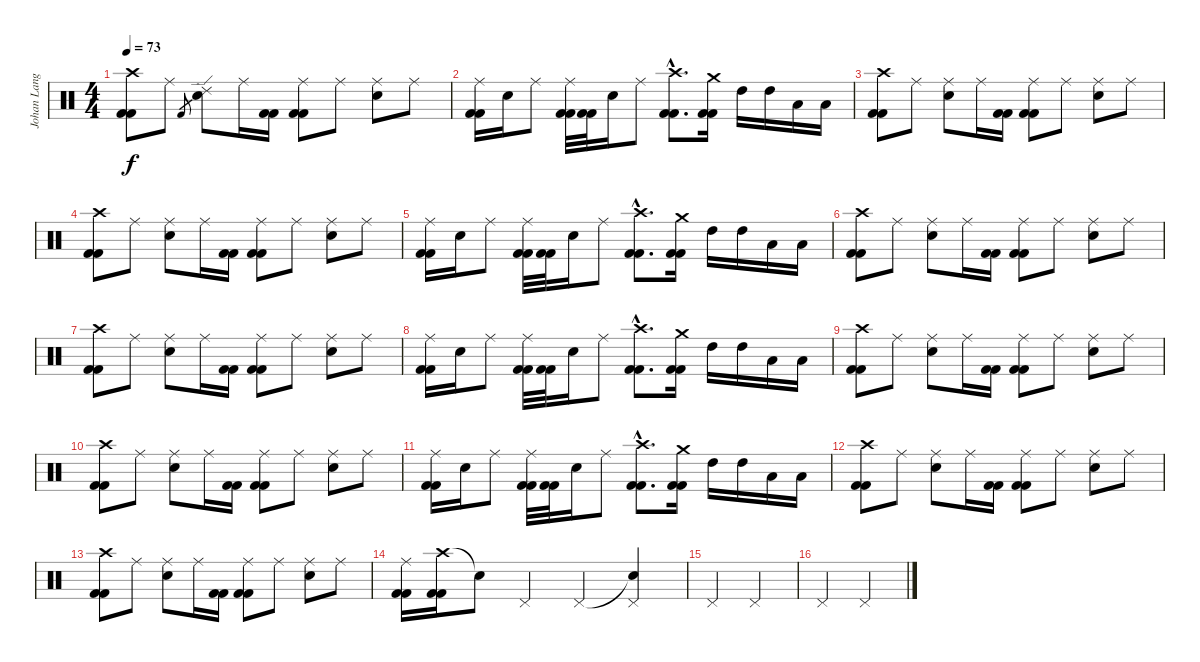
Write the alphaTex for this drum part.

\track ("Johan Langell" "Johan Lang") {instrument percussion}
\staff {score}
\articulation defaults
\ts (4 4)
\tempo 73
\clef neutral
\ks c
("Crash high (hit)" "Kick (hit) 2" "Kick (hit) 2").8{dy f} "Ride (middle)".8 "Kick (hit) 2".8{gr} ("Ride (edge) 2" "Snare (hit) 2").8 "Ride (middle)".16 ("Kick (hit) 2" "Kick (hit) 2").16 ("Ride (middle)" "Kick (hit) 2" "Kick (hit) 2").8 "Ride (middle)".8 ("Ride (middle)" "Snare (hit) 2").8 "Ride (middle)".8 |
("Ride (middle)" "Kick (hit) 2" "Kick (hit) 2").16 "Snare (hit) 2".16 "Ride (middle)".8 ("Ride (middle)" "Kick (hit) 2" "Kick (hit) 2").32 ("Kick (hit) 2" "Kick (hit) 2").32 "Snare (hit) 2".16 "Ride (middle)".8 ("Crash high (hit)"{hac} "Kick (hit) 2"{hac} "Kick (hit) 2"{hac}).8{d} ("Crash medium (hit)" "Kick (hit) 2" "Kick (hit) 2").16 "High Tom (hit)".16 "High Tom (hit)".16 "Low Tom (hit)".16 "Low Tom (hit)".16 |
("Crash high (hit)" "Kick (hit) 2" "Kick (hit) 2").8 "Ride (middle)".8 ("Ride (middle)" "Snare (hit) 2").8 "Ride (middle)".16 ("Kick (hit) 2" "Kick (hit) 2").16 ("Ride (middle)" "Kick (hit) 2" "Kick (hit) 2").8 "Ride (middle)".8 ("Ride (middle)" "Snare (hit) 2").8 "Ride (middle)".8 |
("Crash high (hit)" "Kick (hit) 2" "Kick (hit) 2").8 "Ride (middle)".8 ("Ride (middle)" "Snare (hit) 2").8 "Ride (middle)".16 ("Kick (hit) 2" "Kick (hit) 2").16 ("Ride (middle)" "Kick (hit) 2" "Kick (hit) 2").8 "Ride (middle)".8 ("Ride (middle)" "Snare (hit) 2").8 "Ride (middle)".8 |
("Ride (middle)" "Kick (hit) 2" "Kick (hit) 2").16 "Snare (hit) 2".16 "Ride (middle)".8 ("Ride (middle)" "Kick (hit) 2" "Kick (hit) 2").32 ("Kick (hit) 2" "Kick (hit) 2").32 "Snare (hit) 2".16 "Ride (middle)".8 ("Crash high (hit)"{hac} "Kick (hit) 2"{hac} "Kick (hit) 2"{hac}).8{d} ("Crash medium (hit)" "Kick (hit) 2" "Kick (hit) 2").16 "High Tom (hit)".16 "High Tom (hit)".16 "Low Tom (hit)".16 "Low Tom (hit)".16 |
("Crash high (hit)" "Kick (hit) 2" "Kick (hit) 2").8 "Ride (middle)".8 ("Ride (middle)" "Snare (hit) 2").8 "Ride (middle)".16 ("Kick (hit) 2" "Kick (hit) 2").16 ("Ride (middle)" "Kick (hit) 2" "Kick (hit) 2").8 "Ride (middle)".8 ("Ride (middle)" "Snare (hit) 2").8 "Ride (middle)".8 |
("Crash high (hit)" "Kick (hit) 2" "Kick (hit) 2").8 "Ride (middle)".8 ("Ride (middle)" "Snare (hit) 2").8 "Ride (middle)".16 ("Kick (hit) 2" "Kick (hit) 2").16 ("Ride (middle)" "Kick (hit) 2" "Kick (hit) 2").8 "Ride (middle)".8 ("Ride (middle)" "Snare (hit) 2").8 "Ride (middle)".8 |
("Ride (middle)" "Kick (hit) 2" "Kick (hit) 2").16 "Snare (hit) 2".16 "Ride (middle)".8 ("Ride (middle)" "Kick (hit) 2" "Kick (hit) 2").32 ("Kick (hit) 2" "Kick (hit) 2").32 "Snare (hit) 2".16 "Ride (middle)".8 ("Crash high (hit)"{hac} "Kick (hit) 2"{hac} "Kick (hit) 2"{hac}).8{d} ("Crash medium (hit)" "Kick (hit) 2" "Kick (hit) 2").16 "High Tom (hit)".16 "High Tom (hit)".16 "Low Tom (hit)".16 "Low Tom (hit)".16 |
("Crash high (hit)" "Kick (hit) 2" "Kick (hit) 2").8 "Ride (middle)".8 ("Ride (middle)" "Snare (hit) 2").8 "Ride (middle)".16 ("Kick (hit) 2" "Kick (hit) 2").16 ("Ride (middle)" "Kick (hit) 2" "Kick (hit) 2").8 "Ride (middle)".8 ("Ride (middle)" "Snare (hit) 2").8 "Ride (middle)".8 |
("Crash high (hit)" "Kick (hit) 2" "Kick (hit) 2").8 "Ride (middle)".8 ("Ride (middle)" "Snare (hit) 2").8 "Ride (middle)".16 ("Kick (hit) 2" "Kick (hit) 2").16 ("Ride (middle)" "Kick (hit) 2" "Kick (hit) 2").8 "Ride (middle)".8 ("Ride (middle)" "Snare (hit) 2").8 "Ride (middle)".8 |
("Ride (middle)" "Kick (hit) 2" "Kick (hit) 2").16 "Snare (hit) 2".16 "Ride (middle)".8 ("Ride (middle)" "Kick (hit) 2" "Kick (hit) 2").32 ("Kick (hit) 2" "Kick (hit) 2").32 "Snare (hit) 2".16 "Ride (middle)".8 ("Crash high (hit)"{hac} "Kick (hit) 2"{hac} "Kick (hit) 2"{hac}).8{d} ("Crash medium (hit)" "Kick (hit) 2" "Kick (hit) 2").16 "High Tom (hit)".16 "High Tom (hit)".16 "Low Tom (hit)".16 "Low Tom (hit)".16 |
("Crash high (hit)" "Kick (hit) 2" "Kick (hit) 2").8 "Ride (middle)".8 ("Ride (middle)" "Snare (hit) 2").8 "Ride (middle)".16 ("Kick (hit) 2" "Kick (hit) 2").16 ("Ride (middle)" "Kick (hit) 2" "Kick (hit) 2").8 "Ride (middle)".8 ("Ride (middle)" "Snare (hit) 2").8 "Ride (middle)".8 |
("Crash high (hit)" "Kick (hit) 2" "Kick (hit) 2").8 "Ride (middle)".8 ("Ride (middle)" "Snare (hit) 2").8 "Ride (middle)".16 ("Kick (hit) 2" "Kick (hit) 2").16 ("Ride (middle)" "Kick (hit) 2" "Kick (hit) 2").8 "Ride (middle)".8 ("Ride (middle)" "Snare (hit) 2").8 "Ride (middle)".8 |
("Ride (middle)" "Kick (hit) 2" "Kick (hit) 2").16 ("Crash high (hit)" "Kick (hit) 2" "Kick (hit) 2").16 "Snare (hit)"{t}.8 "Pedal Hi-Hat (hit)".4 "Pedal Hi-Hat (hit)".4 ("Snare (hit)"{t} "Pedal Hi-Hat (hit)").4 |
"Pedal Hi-Hat (hit)".2 "Pedal Hi-Hat (hit)".2 |
"Pedal Hi-Hat (hit)".2 "Pedal Hi-Hat (hit)".2
